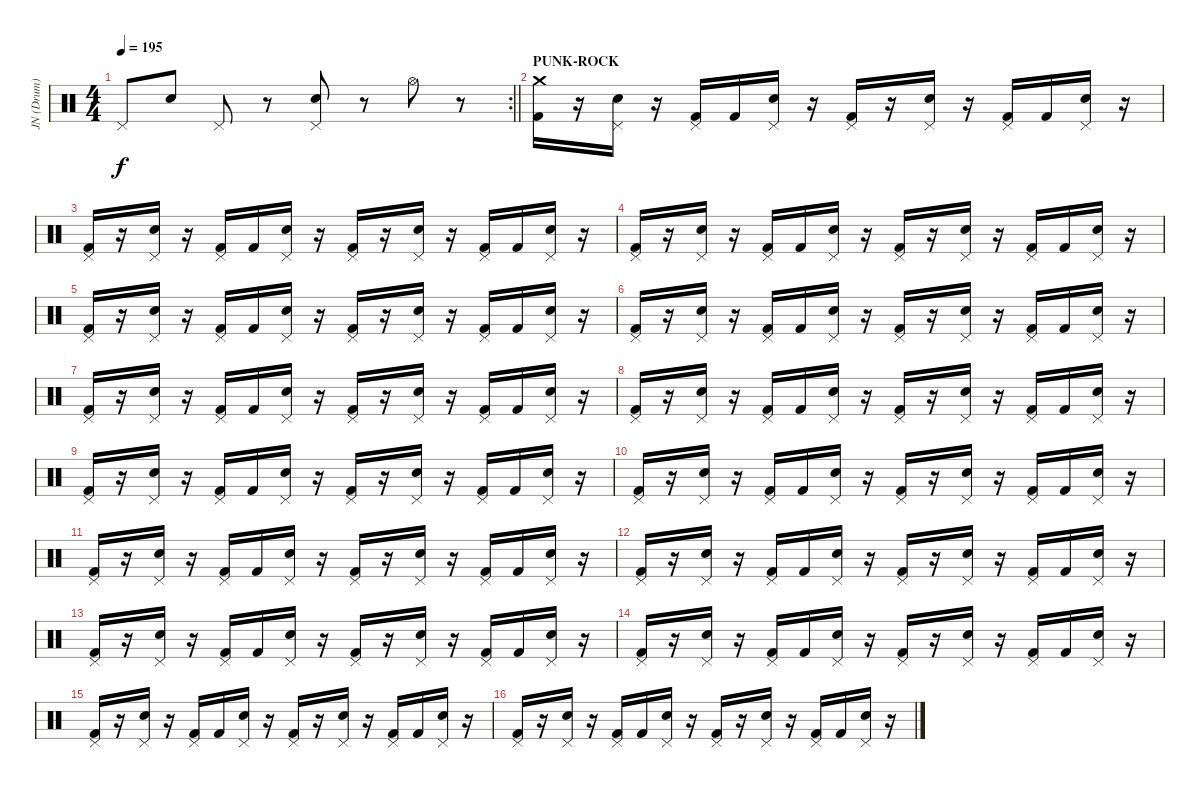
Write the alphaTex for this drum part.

\track ("JN (Drum)" "JN (Drum)") {instrument percussion}
\staff {score}
\articulation defaults
\rc 2
\ts (4 4)
\tempo 195
\clef neutral
\barLineRight lightlight
\ks c "Pedal Hi-Hat (hit)".8{dy f} "Hand Clap (hit)".8 "Pedal Hi-Hat (hit)".8
r.8 ("Pedal Hi-Hat (hit)" "Hand Clap (hit)").8 r.8 "Hi-Hat (open)".8 r.8 |
\section ("" "PUNK-ROCK")
("Crash medium (hit)" "Kick (hit) 2").16 r.16 ("Pedal Hi-Hat (hit)" "Electric Snare (hit)").16 r.16 ("Pedal Hi-Hat (hit)" "Kick (hit) 2").16 "Kick (hit) 2".16 ("Pedal Hi-Hat (hit)" "Electric Snare (hit)").16 r.16 ("Pedal Hi-Hat (hit)" "Kick (hit) 2").16 r.16 ("Pedal Hi-Hat (hit)" "Electric Snare (hit)").16 r.16 ("Pedal Hi-Hat (hit)" "Kick (hit) 2").16 "Kick (hit) 2".16 ("Pedal Hi-Hat (hit)" "Electric Snare (hit)").16 r.16 |
("Pedal Hi-Hat (hit)" "Kick (hit) 2").16 r.16 ("Pedal Hi-Hat (hit)" "Electric Snare (hit)").16 r.16 ("Pedal Hi-Hat (hit)" "Kick (hit) 2").16 "Kick (hit) 2".16 ("Pedal Hi-Hat (hit)" "Electric Snare (hit)").16 r.16 ("Pedal Hi-Hat (hit)" "Kick (hit) 2").16 r.16 ("Pedal Hi-Hat (hit)" "Electric Snare (hit)").16 r.16 ("Pedal Hi-Hat (hit)" "Kick (hit) 2").16 "Kick (hit) 2".16 ("Pedal Hi-Hat (hit)" "Electric Snare (hit)").16 r.16 |
("Pedal Hi-Hat (hit)" "Kick (hit) 2").16 r.16 ("Pedal Hi-Hat (hit)" "Electric Snare (hit)").16 r.16 ("Pedal Hi-Hat (hit)" "Kick (hit) 2").16 "Kick (hit) 2".16 ("Pedal Hi-Hat (hit)" "Electric Snare (hit)").16 r.16 ("Pedal Hi-Hat (hit)" "Kick (hit) 2").16 r.16 ("Pedal Hi-Hat (hit)" "Electric Snare (hit)").16 r.16 ("Pedal Hi-Hat (hit)" "Kick (hit) 2").16 "Kick (hit) 2".16 ("Pedal Hi-Hat (hit)" "Electric Snare (hit)").16 r.16 |
("Pedal Hi-Hat (hit)" "Kick (hit) 2").16 r.16 ("Pedal Hi-Hat (hit)" "Electric Snare (hit)").16 r.16 ("Pedal Hi-Hat (hit)" "Kick (hit) 2").16 "Kick (hit) 2".16 ("Pedal Hi-Hat (hit)" "Electric Snare (hit)").16 r.16 ("Pedal Hi-Hat (hit)" "Kick (hit) 2").16 r.16 ("Pedal Hi-Hat (hit)" "Electric Snare (hit)").16 r.16 ("Pedal Hi-Hat (hit)" "Kick (hit) 2").16 "Kick (hit) 2".16 ("Pedal Hi-Hat (hit)" "Electric Snare (hit)").16 r.16 |
("Pedal Hi-Hat (hit)" "Kick (hit) 2").16 r.16 ("Pedal Hi-Hat (hit)" "Electric Snare (hit)").16 r.16 ("Pedal Hi-Hat (hit)" "Kick (hit) 2").16 "Kick (hit) 2".16 ("Pedal Hi-Hat (hit)" "Electric Snare (hit)").16 r.16 ("Pedal Hi-Hat (hit)" "Kick (hit) 2").16 r.16 ("Pedal Hi-Hat (hit)" "Electric Snare (hit)").16 r.16 ("Pedal Hi-Hat (hit)" "Kick (hit) 2").16 "Kick (hit) 2".16 ("Pedal Hi-Hat (hit)" "Electric Snare (hit)").16 r.16 |
("Pedal Hi-Hat (hit)" "Kick (hit) 2").16 r.16 ("Pedal Hi-Hat (hit)" "Electric Snare (hit)").16 r.16 ("Pedal Hi-Hat (hit)" "Kick (hit) 2").16 "Kick (hit) 2".16 ("Pedal Hi-Hat (hit)" "Electric Snare (hit)").16 r.16 ("Pedal Hi-Hat (hit)" "Kick (hit) 2").16 r.16 ("Pedal Hi-Hat (hit)" "Electric Snare (hit)").16 r.16 ("Pedal Hi-Hat (hit)" "Kick (hit) 2").16 "Kick (hit) 2".16 ("Pedal Hi-Hat (hit)" "Electric Snare (hit)").16 r.16 |
("Pedal Hi-Hat (hit)" "Kick (hit) 2").16 r.16 ("Pedal Hi-Hat (hit)" "Electric Snare (hit)").16 r.16 ("Pedal Hi-Hat (hit)" "Kick (hit) 2").16 "Kick (hit) 2".16 ("Pedal Hi-Hat (hit)" "Electric Snare (hit)").16 r.16 ("Pedal Hi-Hat (hit)" "Kick (hit) 2").16 r.16 ("Pedal Hi-Hat (hit)" "Electric Snare (hit)").16 r.16 ("Pedal Hi-Hat (hit)" "Kick (hit) 2").16 "Kick (hit) 2".16 ("Pedal Hi-Hat (hit)" "Electric Snare (hit)").16 r.16 |
("Pedal Hi-Hat (hit)" "Kick (hit) 2").16 r.16 ("Pedal Hi-Hat (hit)" "Electric Snare (hit)").16 r.16 ("Pedal Hi-Hat (hit)" "Kick (hit) 2").16 "Kick (hit) 2".16 ("Pedal Hi-Hat (hit)" "Electric Snare (hit)").16 r.16 ("Pedal Hi-Hat (hit)" "Kick (hit) 2").16 r.16 ("Pedal Hi-Hat (hit)" "Electric Snare (hit)").16 r.16 ("Pedal Hi-Hat (hit)" "Kick (hit) 2").16 "Kick (hit) 2".16 ("Pedal Hi-Hat (hit)" "Electric Snare (hit)").16 r.16 |
("Pedal Hi-Hat (hit)" "Kick (hit) 2").16 r.16 ("Pedal Hi-Hat (hit)" "Electric Snare (hit)").16 r.16 ("Pedal Hi-Hat (hit)" "Kick (hit) 2").16 "Kick (hit) 2".16 ("Pedal Hi-Hat (hit)" "Electric Snare (hit)").16 r.16 ("Pedal Hi-Hat (hit)" "Kick (hit) 2").16 r.16 ("Pedal Hi-Hat (hit)" "Electric Snare (hit)").16 r.16 ("Pedal Hi-Hat (hit)" "Kick (hit) 2").16 "Kick (hit) 2".16 ("Pedal Hi-Hat (hit)" "Electric Snare (hit)").16 r.16 |
("Pedal Hi-Hat (hit)" "Kick (hit) 2").16 r.16 ("Pedal Hi-Hat (hit)" "Electric Snare (hit)").16 r.16 ("Pedal Hi-Hat (hit)" "Kick (hit) 2").16 "Kick (hit) 2".16 ("Pedal Hi-Hat (hit)" "Electric Snare (hit)").16 r.16 ("Pedal Hi-Hat (hit)" "Kick (hit) 2").16 r.16 ("Pedal Hi-Hat (hit)" "Electric Snare (hit)").16 r.16 ("Pedal Hi-Hat (hit)" "Kick (hit) 2").16 "Kick (hit) 2".16 ("Pedal Hi-Hat (hit)" "Electric Snare (hit)").16 r.16 |
("Pedal Hi-Hat (hit)" "Kick (hit) 2").16 r.16 ("Pedal Hi-Hat (hit)" "Electric Snare (hit)").16 r.16 ("Pedal Hi-Hat (hit)" "Kick (hit) 2").16 "Kick (hit) 2".16 ("Pedal Hi-Hat (hit)" "Electric Snare (hit)").16 r.16 ("Pedal Hi-Hat (hit)" "Kick (hit) 2").16 r.16 ("Pedal Hi-Hat (hit)" "Electric Snare (hit)").16 r.16 ("Pedal Hi-Hat (hit)" "Kick (hit) 2").16 "Kick (hit) 2".16 ("Pedal Hi-Hat (hit)" "Electric Snare (hit)").16 r.16 |
("Pedal Hi-Hat (hit)" "Kick (hit) 2").16 r.16 ("Pedal Hi-Hat (hit)" "Electric Snare (hit)").16 r.16 ("Pedal Hi-Hat (hit)" "Kick (hit) 2").16 "Kick (hit) 2".16 ("Pedal Hi-Hat (hit)" "Electric Snare (hit)").16 r.16 ("Pedal Hi-Hat (hit)" "Kick (hit) 2").16 r.16 ("Pedal Hi-Hat (hit)" "Electric Snare (hit)").16 r.16 ("Pedal Hi-Hat (hit)" "Kick (hit) 2").16 "Kick (hit) 2".16 ("Pedal Hi-Hat (hit)" "Electric Snare (hit)").16 r.16 |
("Pedal Hi-Hat (hit)" "Kick (hit) 2").16 r.16 ("Pedal Hi-Hat (hit)" "Electric Snare (hit)").16 r.16 ("Pedal Hi-Hat (hit)" "Kick (hit) 2").16 "Kick (hit) 2".16 ("Pedal Hi-Hat (hit)" "Electric Snare (hit)").16 r.16 ("Pedal Hi-Hat (hit)" "Kick (hit) 2").16 r.16 ("Pedal Hi-Hat (hit)" "Electric Snare (hit)").16 r.16 ("Pedal Hi-Hat (hit)" "Kick (hit) 2").16 "Kick (hit) 2".16 ("Pedal Hi-Hat (hit)" "Electric Snare (hit)").16 r.16 |
("Pedal Hi-Hat (hit)" "Kick (hit) 2").16 r.16 ("Pedal Hi-Hat (hit)" "Electric Snare (hit)").16 r.16 ("Pedal Hi-Hat (hit)" "Kick (hit) 2").16 "Kick (hit) 2".16 ("Pedal Hi-Hat (hit)" "Electric Snare (hit)").16 r.16 ("Pedal Hi-Hat (hit)" "Kick (hit) 2").16 r.16 ("Pedal Hi-Hat (hit)" "Electric Snare (hit)").16 r.16 ("Pedal Hi-Hat (hit)" "Kick (hit) 2").16 "Kick (hit) 2".16 ("Pedal Hi-Hat (hit)" "Electric Snare (hit)").16 r.16 |
("Pedal Hi-Hat (hit)" "Kick (hit) 2").16 r.16 ("Pedal Hi-Hat (hit)" "Electric Snare (hit)").16 r.16 ("Pedal Hi-Hat (hit)" "Kick (hit) 2").16 "Kick (hit) 2".16 ("Pedal Hi-Hat (hit)" "Electric Snare (hit)").16 r.16 ("Pedal Hi-Hat (hit)" "Kick (hit) 2").16 r.16 ("Pedal Hi-Hat (hit)" "Electric Snare (hit)").16 r.16 ("Pedal Hi-Hat (hit)" "Kick (hit) 2").16 "Kick (hit) 2".16 ("Pedal Hi-Hat (hit)" "Electric Snare (hit)").16 r.16
